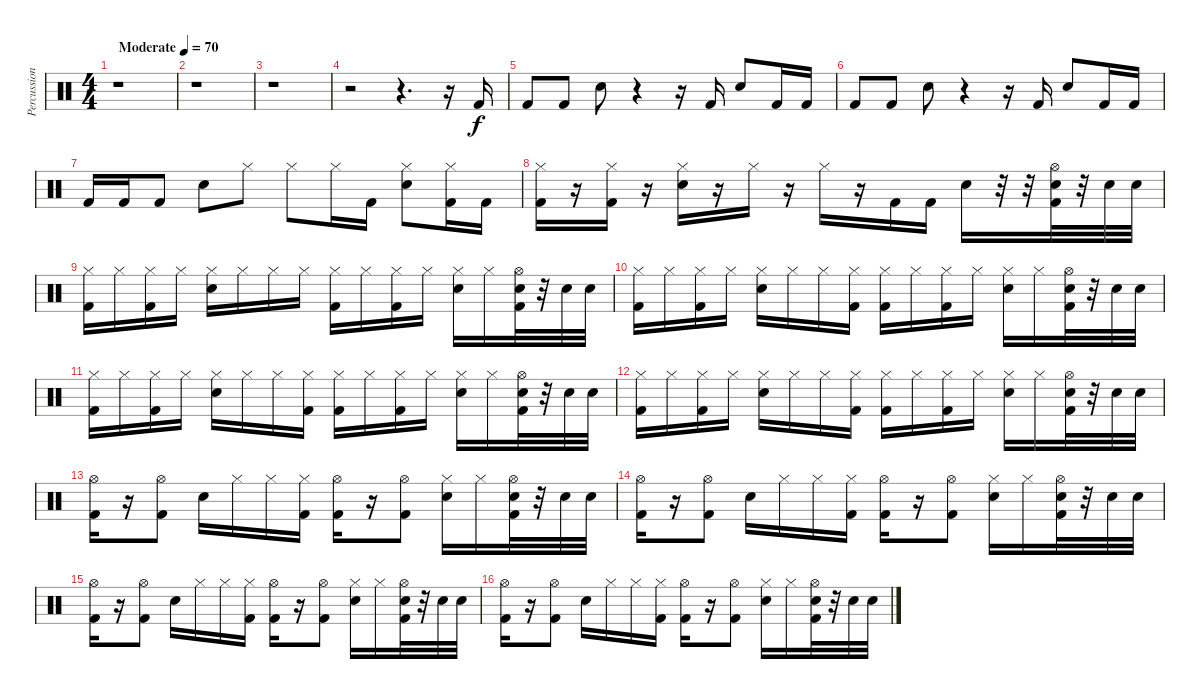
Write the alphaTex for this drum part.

\track ("Percussion" "Percussion") {instrument percussion}
\staff {score}
\articulation defaults
\ts (4 4)
\tempo (70 "Moderate")
\clef neutral
\ks c
r.1{dy f} |
r.1 |
r.1 |
r.2 r.4{d} r.16 "Kick (hit) 2".16 |
"Kick (hit) 2".8 "Kick (hit) 2".8 "Snare (hit) 2".8 r.4 r.16 "Kick (hit) 2".16 "Snare (hit) 2".8 "Kick (hit) 2".16 "Kick (hit) 2".16 |
"Kick (hit) 2".8 "Kick (hit) 2".8 "Snare (hit) 2".8 r.4 r.16 "Kick (hit) 2".16 "Snare (hit) 2".8 "Kick (hit) 2".16 "Kick (hit) 2".16 |
"Kick (hit) 2".16 "Kick (hit) 2".16 "Kick (hit) 2".8 "Snare (hit) 2".8 "Hi-Hat (closed)".8 "Hi-Hat (closed)".8 "Hi-Hat (closed)".16 "Kick (hit) 2".16 ("Hi-Hat (closed)" "Snare (hit) 2").8 ("Hi-Hat (closed)" "Kick (hit) 2").16 "Kick (hit) 2".16 |
("Hi-Hat (closed)" "Kick (hit) 2").16 r.16 ("Hi-Hat (closed)" "Kick (hit) 2").16 r.16 ("Hi-Hat (closed)" "Snare (hit) 2").16 r.16 "Hi-Hat (closed)".16 r.16 "Hi-Hat (closed)".16 r.16 "Kick (hit) 2".16 "Kick (hit) 2".16 "Snare (hit) 2".16 r.32 r.32 ("Hi-Hat (open)" "Snare (hit) 2" "Kick (hit) 2").32 r.32 "Snare (hit) 2".32 "Snare (hit) 2".32 |
("Hi-Hat (closed)" "Kick (hit) 2").16 "Hi-Hat (closed)".16 ("Hi-Hat (closed)" "Kick (hit) 2").16 "Hi-Hat (closed)".16 ("Hi-Hat (closed)" "Snare (hit) 2").16 "Hi-Hat (closed)".16 "Hi-Hat (closed)".16 "Hi-Hat (closed)".16 ("Hi-Hat (closed)" "Kick (hit) 2").16 "Hi-Hat (closed)".16 ("Hi-Hat (closed)" "Kick (hit) 2").16 "Hi-Hat (closed)".16 ("Hi-Hat (closed)" "Snare (hit) 2").16 "Hi-Hat (closed)".16 ("Hi-Hat (open)" "Snare (hit) 2" "Kick (hit) 2").32 r.32 "Snare (hit) 2".32 "Snare (hit) 2".32 |
("Hi-Hat (closed)" "Kick (hit) 2").16 "Hi-Hat (closed)".16 ("Hi-Hat (closed)" "Kick (hit) 2").16 "Hi-Hat (closed)".16 ("Hi-Hat (closed)" "Snare (hit) 2").16 "Hi-Hat (closed)".16 "Hi-Hat (closed)".16 ("Hi-Hat (closed)" "Kick (hit) 2").16 ("Hi-Hat (closed)" "Kick (hit) 2").16 "Hi-Hat (closed)".16 ("Hi-Hat (closed)" "Kick (hit) 2").16 "Hi-Hat (closed)".16 ("Hi-Hat (closed)" "Snare (hit) 2").16 "Hi-Hat (closed)".16 ("Hi-Hat (open)" "Snare (hit) 2" "Kick (hit) 2").32 r.32 "Snare (hit) 2".32 "Snare (hit) 2".32 |
("Hi-Hat (closed)" "Kick (hit) 2").16 "Hi-Hat (closed)".16 ("Hi-Hat (closed)" "Kick (hit) 2").16 "Hi-Hat (closed)".16 ("Hi-Hat (closed)" "Snare (hit) 2").16 "Hi-Hat (closed)".16 "Hi-Hat (closed)".16 ("Hi-Hat (closed)" "Kick (hit) 2").16 ("Hi-Hat (closed)" "Kick (hit) 2").16 "Hi-Hat (closed)".16 ("Hi-Hat (closed)" "Kick (hit) 2").16 "Hi-Hat (closed)".16 ("Hi-Hat (closed)" "Snare (hit) 2").16 "Hi-Hat (closed)".16 ("Hi-Hat (open)" "Snare (hit) 2" "Kick (hit) 2").32 r.32 "Snare (hit) 2".32 "Snare (hit) 2".32 |
("Hi-Hat (closed)" "Kick (hit) 2").16 "Hi-Hat (closed)".16 ("Hi-Hat (closed)" "Kick (hit) 2").16 "Hi-Hat (closed)".16 ("Hi-Hat (closed)" "Snare (hit) 2").16 "Hi-Hat (closed)".16 "Hi-Hat (closed)".16 ("Hi-Hat (closed)" "Kick (hit) 2").16 ("Hi-Hat (closed)" "Kick (hit) 2").16 "Hi-Hat (closed)".16 ("Hi-Hat (closed)" "Kick (hit) 2").16 "Hi-Hat (closed)".16 ("Hi-Hat (closed)" "Snare (hit) 2").16 "Hi-Hat (closed)".16 ("Hi-Hat (open)" "Snare (hit) 2" "Kick (hit) 2").32 r.32 "Snare (hit) 2".32 "Snare (hit) 2".32 |
("Hi-Hat (open)" "Kick (hit) 2").16 r.16 ("Hi-Hat (open)" "Kick (hit) 2").8 "Snare (hit) 2".16 "Hi-Hat (closed)".16 "Hi-Hat (closed)".16 ("Hi-Hat (closed)" "Kick (hit) 2").16 ("Hi-Hat (open)" "Kick (hit) 2").16 r.16 ("Hi-Hat (open)" "Kick (hit) 2").8 ("Hi-Hat (closed)" "Snare (hit) 2").16 "Hi-Hat (closed)".16 ("Hi-Hat (open)" "Snare (hit) 2" "Kick (hit) 2").32 r.32 "Snare (hit) 2".32 "Snare (hit) 2".32 |
("Hi-Hat (open)" "Kick (hit) 2").16 r.16 ("Hi-Hat (open)" "Kick (hit) 2").8 "Snare (hit) 2".16 "Hi-Hat (closed)".16 "Hi-Hat (closed)".16 ("Hi-Hat (closed)" "Kick (hit) 2").16 ("Hi-Hat (open)" "Kick (hit) 2").16 r.16 ("Hi-Hat (open)" "Kick (hit) 2").8 ("Hi-Hat (closed)" "Snare (hit) 2").16 "Hi-Hat (closed)".16 ("Hi-Hat (open)" "Snare (hit) 2" "Kick (hit) 2").32 r.32 "Snare (hit) 2".32 "Snare (hit) 2".32 |
("Hi-Hat (open)" "Kick (hit) 2").16 r.16 ("Hi-Hat (open)" "Kick (hit) 2").8 "Snare (hit) 2".16 "Hi-Hat (closed)".16 "Hi-Hat (closed)".16 ("Hi-Hat (closed)" "Kick (hit) 2").16 ("Hi-Hat (open)" "Kick (hit) 2").16 r.16 ("Hi-Hat (open)" "Kick (hit) 2").8 ("Hi-Hat (closed)" "Snare (hit) 2").16 "Hi-Hat (closed)".16 ("Hi-Hat (open)" "Snare (hit) 2" "Kick (hit) 2").32 r.32 "Snare (hit) 2".32 "Snare (hit) 2".32 |
("Hi-Hat (open)" "Kick (hit) 2").16 r.16 ("Hi-Hat (open)" "Kick (hit) 2").8 "Snare (hit) 2".16 "Hi-Hat (closed)".16 "Hi-Hat (closed)".16 ("Hi-Hat (closed)" "Kick (hit) 2").16 ("Hi-Hat (open)" "Kick (hit) 2").16 r.16 ("Hi-Hat (open)" "Kick (hit) 2").8 ("Hi-Hat (closed)" "Snare (hit) 2").16 "Hi-Hat (closed)".16 ("Hi-Hat (open)" "Snare (hit) 2" "Kick (hit) 2").32 r.32 "Snare (hit) 2".32 "Snare (hit) 2".32
